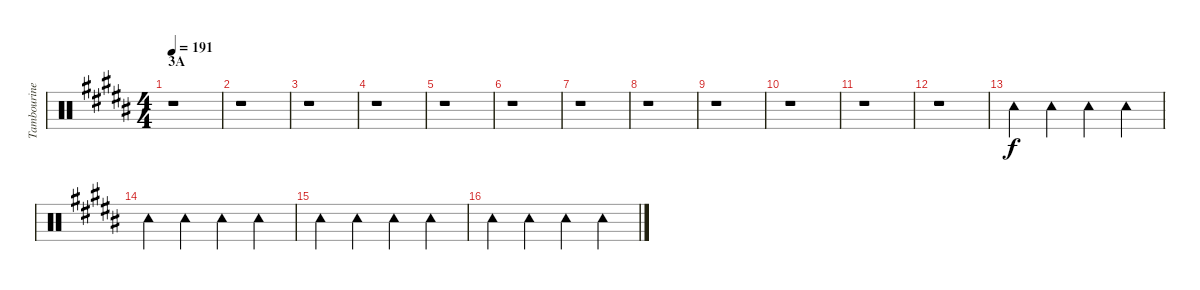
\track ("Tambourine" "Tambourine") {instrument percussion}
\staff {score}
\articulation defaults
\ts (4 4)
\section ("" "3A")
\tempo 191
\clef neutral
\ks b
r.1{dy f} |
r.1 |
r.1 |
r.1 |
r.1 |
r.1 |
r.1 |
r.1 |
r.1 |
r.1 |
r.1 |
r.1 |
"Tambourine (hit)".4 "Tambourine (hit)".4 "Tambourine (hit)".4 "Tambourine (hit)".4 |
"Tambourine (hit)".4 "Tambourine (hit)".4 "Tambourine (hit)".4 "Tambourine (hit)".4 |
"Tambourine (hit)".4 "Tambourine (hit)".4 "Tambourine (hit)".4 "Tambourine (hit)".4 |
"Tambourine (hit)".4 "Tambourine (hit)".4 "Tambourine (hit)".4 "Tambourine (hit)".4
